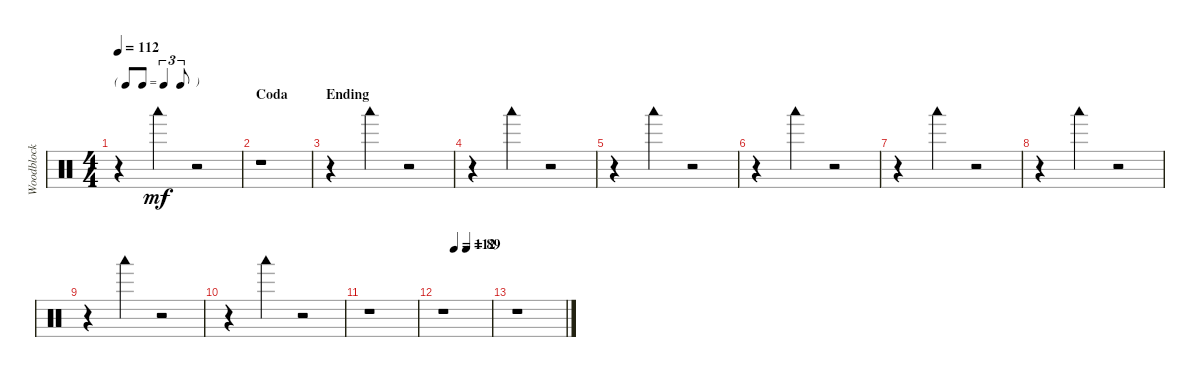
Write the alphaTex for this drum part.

\track ("Woodblock" "Woodblock") {instrument percussion}
\staff {score}
\articulation defaults
\ts (4 4)
\tf triplet8th
\tempo 112
\clef neutral
\ks c
r.4{dy mf} "Woodblock low (hit)".4 r.2 |
\section ("" "Coda")
r.1 |
\section ("" "Ending")
r.4 "Woodblock low (hit)".4 r.2 |
r.4 "Woodblock low (hit)".4 r.2 |
r.4 "Woodblock low (hit)".4 r.2 |
r.4 "Woodblock low (hit)".4 r.2 |
r.4 "Woodblock low (hit)".4 r.2 |
r.4 "Woodblock low (hit)".4 r.2 |
r.4 "Woodblock low (hit)".4 r.2 |
r.4 "Woodblock low (hit)".4 r.2 |
r.1 |
\tempo (112 0.25)
\tempo (89 0.5)
r.1 |
r.1
